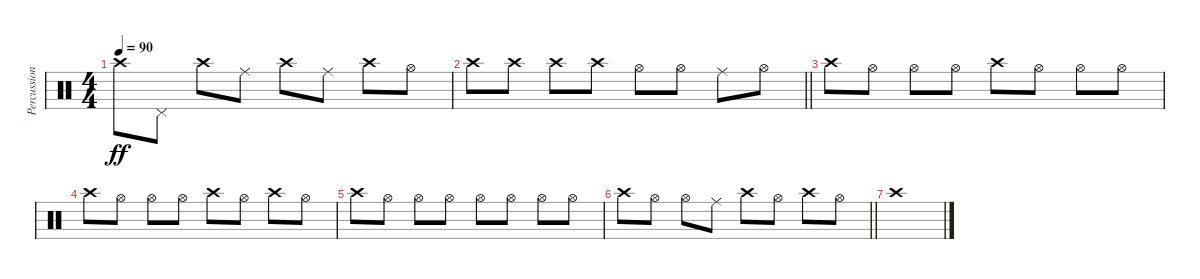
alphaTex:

\track ("Percussion" "Percussion") {instrument percussion}
\staff
\articulation defaults
\ts (4 4)
\tempo 90
\clef neutral
\ks c "Crash high (hit)".8{dy ff} "Pedal Hi-Hat (hit)".8 "Crash high (hit)".8 "Ride (middle)".8 "Crash high (hit)".8 "Ride (middle)".8 "Crash high (hit)".8 "Hi-Hat (open)".8
|
\barLineRight lightlight "Crash high (hit)".8 "Crash high (hit)".8 "Crash high (hit)".8 "Crash high (hit)".8 "Hi-Hat (open)".8 "Hi-Hat (open)".8 "Ride (middle)".8 "Hi-Hat (open)".8
|
"Crash high (hit)".8 "Hi-Hat (open)".8 "Hi-Hat (open)".8 "Hi-Hat (open)".8 "Crash high (hit)".8 "Hi-Hat (open)".8 "Hi-Hat (open)".8 "Hi-Hat (open)".8 |
"Crash high (hit)".8 "Hi-Hat (open)".8 "Hi-Hat (open)".8 "Hi-Hat (open)".8 "Crash high (hit)".8 "Hi-Hat (open)".8 "Crash high (hit)".8 "Hi-Hat (open)".8 |
"Crash high (hit)".8 "Hi-Hat (open)".8 "Hi-Hat (open)".8 "Hi-Hat (open)".8 "Hi-Hat (open)".8 "Hi-Hat (open)".8 "Hi-Hat (open)".8 "Hi-Hat (open)".8 |
\barLineRight lightlight "Crash high (hit)".8 "Hi-Hat (open)".8 "Hi-Hat (open)".8 "Ride (middle)".8 "Crash high (hit)".8 "Hi-Hat (open)".8 "Crash high (hit)".8 "Hi-Hat (open)".8
|
"Crash high (hit)".1
